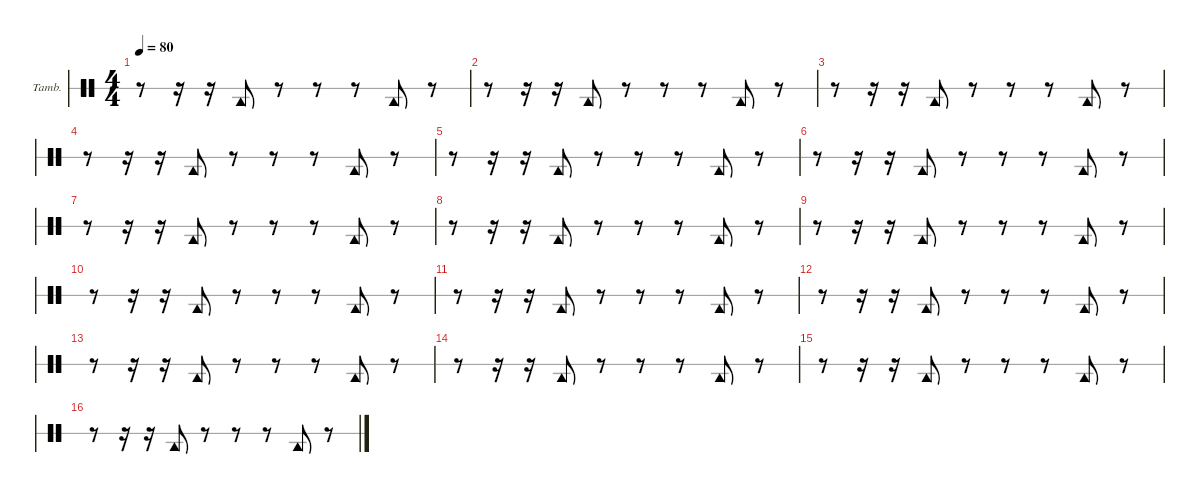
\hideDynamics
\bracketExtendMode nobrackets
\firstSystemTrackNameOrientation horizontal
\otherSystemsTrackNameOrientation horizontal
\track ("Tambourine" "Tamb.") {instrument percussion}
\staff {score 1}
\articulation defaults
\ts (4 4)
\tempo 80
\clef neutral
\ks c
r.8{dy f} r.16 r.16 "Tambourine (hit)".8{dy p} r.8 r.8 r.8 "Tambourine (hit)".8 r.8 |
r.8 r.16 r.16 "Tambourine (hit)".8 r.8 r.8 r.8 "Tambourine (hit)".8 r.8 |
r.8 r.16 r.16 "Tambourine (hit)".8 r.8 r.8 r.8 "Tambourine (hit)".8 r.8 |
r.8 r.16 r.16 "Tambourine (hit)".8 r.8 r.8 r.8 "Tambourine (hit)".8 r.8 |
r.8 r.16 r.16 "Tambourine (hit)".8 r.8 r.8 r.8 "Tambourine (hit)".8 r.8 |
r.8 r.16 r.16 "Tambourine (hit)".8 r.8 r.8 r.8 "Tambourine (hit)".8 r.8 |
r.8 r.16 r.16 "Tambourine (hit)".8 r.8 r.8 r.8 "Tambourine (hit)".8 r.8 |
r.8 r.16 r.16 "Tambourine (hit)".8 r.8 r.8 r.8 "Tambourine (hit)".8 r.8 |
r.8 r.16 r.16 "Tambourine (hit)".8 r.8 r.8 r.8 "Tambourine (hit)".8 r.8 |
r.8 r.16 r.16 "Tambourine (hit)".8 r.8 r.8 r.8 "Tambourine (hit)".8 r.8 |
r.8 r.16 r.16 "Tambourine (hit)".8 r.8 r.8 r.8 "Tambourine (hit)".8 r.8 |
r.8 r.16 r.16 "Tambourine (hit)".8 r.8 r.8 r.8 "Tambourine (hit)".8 r.8 |
r.8 r.16 r.16 "Tambourine (hit)".8 r.8 r.8 r.8 "Tambourine (hit)".8 r.8 |
r.8 r.16 r.16 "Tambourine (hit)".8 r.8 r.8 r.8 "Tambourine (hit)".8 r.8 |
r.8 r.16 r.16 "Tambourine (hit)".8 r.8 r.8 r.8 "Tambourine (hit)".8 r.8 |
r.8 r.16 r.16 "Tambourine (hit)".8 r.8 r.8 r.8 "Tambourine (hit)".8 r.8
